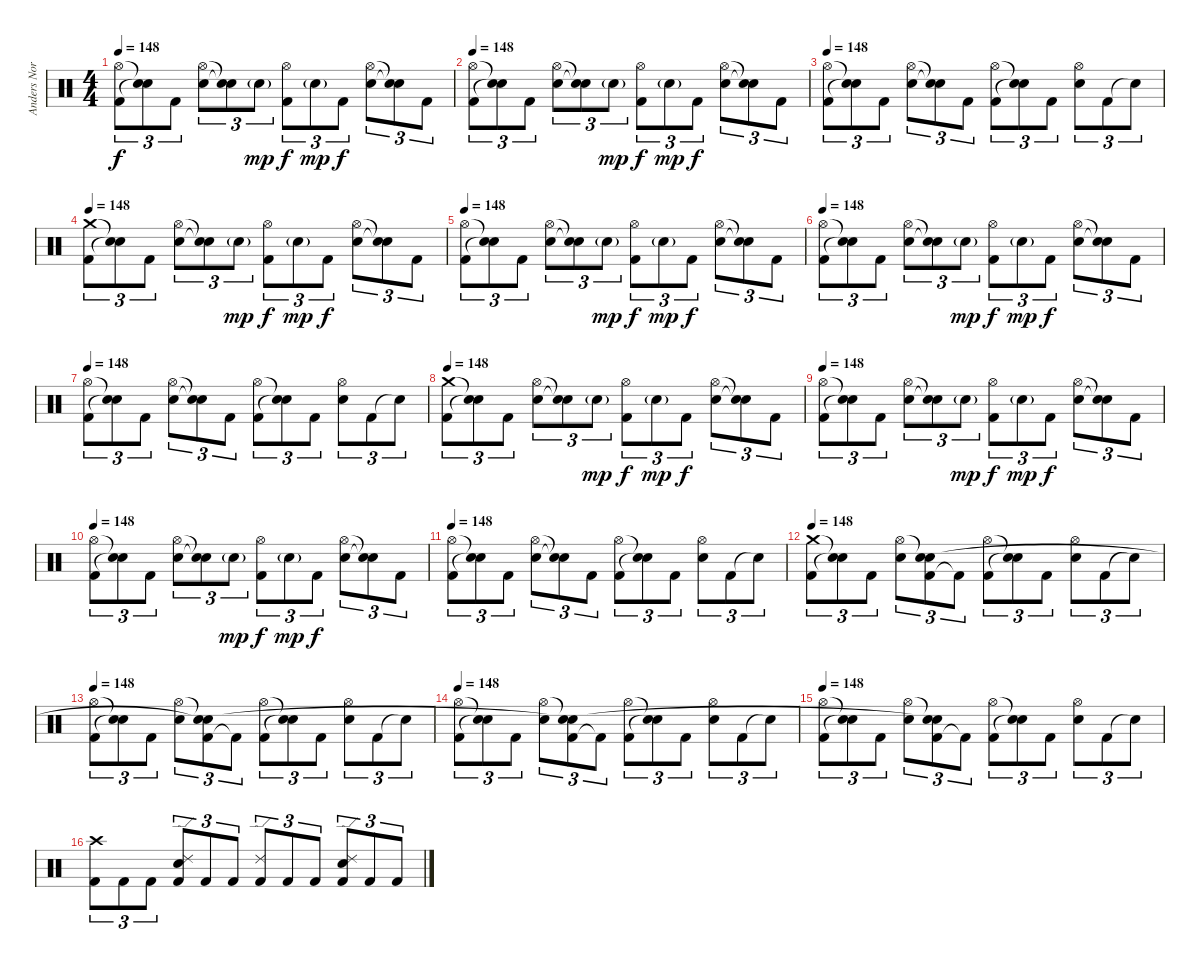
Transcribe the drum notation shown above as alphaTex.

\track ("Anders Nordin" "Anders Nor") {instrument percussion}
\staff {score}
\articulation defaults
\ts (4 4)
\tempo 148
\clef neutral
\ks c
("Kick (hit) 2" "Hi-Hat (open)").8{tu (3 2) dy f} ("Snare (hit)"{t} "Snare (hit)"{t}).8{tu (3 2)} "Kick (hit) 2".8{tu (3 2)} ("Electric Snare (hit)" "Hi-Hat (open)").8{tu (3 2)} ("Snare (hit)"{t} "Snare (hit)"{t}).8{tu (3 2)} "Electric Snare (hit)"{g}.8{tu (3 2) dy mp} ("Kick (hit) 2" "Hi-Hat (open)").8{tu (3 2) dy f} "Electric Snare (hit)"{g}.8{tu (3 2) dy mp} "Kick (hit) 2".8{tu (3 2) dy f} ("Electric Snare (hit)" "Hi-Hat (open)").8{tu (3 2)} ("Snare (hit)"{t} "Snare (hit)"{t}).8{tu (3 2)} "Kick (hit) 2".8{tu (3 2)} |
\tempo 148
("Kick (hit) 2" "Hi-Hat (open)").8{tu (3 2)} ("Snare (hit)"{t} "Snare (hit)"{t}).8{tu (3 2)} "Kick (hit) 2".8{tu (3 2)} ("Electric Snare (hit)" "Hi-Hat (open)").8{tu (3 2)} ("Snare (hit)"{t} "Snare (hit)"{t}).8{tu (3 2)} "Electric Snare (hit)"{g}.8{tu (3 2) dy mp} ("Kick (hit) 2" "Hi-Hat (open)").8{tu (3 2) dy f} "Electric Snare (hit)"{g}.8{tu (3 2) dy mp} "Kick (hit) 2".8{tu (3 2) dy f} ("Electric Snare (hit)" "Hi-Hat (open)").8{tu (3 2)} ("Snare (hit)"{t} "Snare (hit)"{t}).8{tu (3 2)} "Kick (hit) 2".8{tu (3 2)} |
\tempo 148
("Kick (hit) 2" "Hi-Hat (open)").8{tu (3 2)} ("Snare (hit)"{t} "Snare (hit)"{t}).8{tu (3 2)} "Kick (hit) 2".8{tu (3 2)} ("Electric Snare (hit)" "Hi-Hat (open)").8{tu (3 2)} ("Snare (hit)"{t} "Snare (hit)"{t}).8{tu (3 2)} "Kick (hit) 2".8{tu (3 2)} ("Kick (hit) 2" "Hi-Hat (open)").8{tu (3 2)} ("Snare (hit)"{t} "Snare (hit)"{t}).8{tu (3 2)} "Kick (hit) 2".8{tu (3 2)} ("Electric Snare (hit)" "Hi-Hat (open)").8{tu (3 2)} "Kick (hit) 2".8{tu (3 2)} "Snare (hit)"{t}.8{tu (3 2)} |
\tempo 148
("Kick (hit) 2" "Crash medium (hit)").8{tu (3 2)} ("Snare (hit)"{t} "Snare (hit)"{t}).8{tu (3 2)} "Kick (hit) 2".8{tu (3 2)} ("Electric Snare (hit)" "Hi-Hat (open)").8{tu (3 2)} ("Snare (hit)"{t} "Snare (hit)"{t}).8{tu (3 2)} "Electric Snare (hit)"{g}.8{tu (3 2) dy mp} ("Kick (hit) 2" "Hi-Hat (open)").8{tu (3 2) dy f} "Electric Snare (hit)"{g}.8{tu (3 2) dy mp} "Kick (hit) 2".8{tu (3 2) dy f} ("Electric Snare (hit)" "Hi-Hat (open)").8{tu (3 2)} ("Snare (hit)"{t} "Snare (hit)"{t}).8{tu (3 2)} "Kick (hit) 2".8{tu (3 2)} |
\tempo 148
("Kick (hit) 2" "Hi-Hat (open)").8{tu (3 2)} ("Snare (hit)"{t} "Snare (hit)"{t}).8{tu (3 2)} "Kick (hit) 2".8{tu (3 2)} ("Electric Snare (hit)" "Hi-Hat (open)").8{tu (3 2)} ("Snare (hit)"{t} "Snare (hit)"{t}).8{tu (3 2)} "Electric Snare (hit)"{g}.8{tu (3 2) dy mp} ("Kick (hit) 2" "Hi-Hat (open)").8{tu (3 2) dy f} "Electric Snare (hit)"{g}.8{tu (3 2) dy mp} "Kick (hit) 2".8{tu (3 2) dy f} ("Electric Snare (hit)" "Hi-Hat (open)").8{tu (3 2)} ("Snare (hit)"{t} "Snare (hit)"{t}).8{tu (3 2)} "Kick (hit) 2".8{tu (3 2)} |
\tempo 148
("Kick (hit) 2" "Hi-Hat (open)").8{tu (3 2)} ("Snare (hit)"{t} "Snare (hit)"{t}).8{tu (3 2)} "Kick (hit) 2".8{tu (3 2)} ("Electric Snare (hit)" "Hi-Hat (open)").8{tu (3 2)} ("Snare (hit)"{t} "Snare (hit)"{t}).8{tu (3 2)} "Electric Snare (hit)"{g}.8{tu (3 2) dy mp} ("Kick (hit) 2" "Hi-Hat (open)").8{tu (3 2) dy f} "Electric Snare (hit)"{g}.8{tu (3 2) dy mp} "Kick (hit) 2".8{tu (3 2) dy f} ("Electric Snare (hit)" "Hi-Hat (open)").8{tu (3 2)} ("Snare (hit)"{t} "Snare (hit)"{t}).8{tu (3 2)} "Kick (hit) 2".8{tu (3 2)} |
\tempo 148
("Kick (hit) 2" "Hi-Hat (open)").8{tu (3 2)} ("Snare (hit)"{t} "Snare (hit)"{t}).8{tu (3 2)} "Kick (hit) 2".8{tu (3 2)} ("Electric Snare (hit)" "Hi-Hat (open)").8{tu (3 2)} ("Snare (hit)"{t} "Snare (hit)"{t}).8{tu (3 2)} "Kick (hit) 2".8{tu (3 2)} ("Kick (hit) 2" "Hi-Hat (open)").8{tu (3 2)} ("Snare (hit)"{t} "Snare (hit)"{t}).8{tu (3 2)} "Kick (hit) 2".8{tu (3 2)} ("Electric Snare (hit)" "Hi-Hat (open)").8{tu (3 2)} "Kick (hit) 2".8{tu (3 2)} "Snare (hit)"{t}.8{tu (3 2)} |
\tempo 148
("Kick (hit) 2" "Crash medium (hit)").8{tu (3 2)} ("Snare (hit)"{t} "Snare (hit)"{t}).8{tu (3 2)} "Kick (hit) 2".8{tu (3 2)} ("Electric Snare (hit)" "Hi-Hat (open)").8{tu (3 2)} ("Snare (hit)"{t} "Snare (hit)"{t}).8{tu (3 2)} "Electric Snare (hit)"{g}.8{tu (3 2) dy mp} ("Kick (hit) 2" "Hi-Hat (open)").8{tu (3 2) dy f} "Electric Snare (hit)"{g}.8{tu (3 2) dy mp} "Kick (hit) 2".8{tu (3 2) dy f} ("Electric Snare (hit)" "Hi-Hat (open)").8{tu (3 2)} ("Snare (hit)"{t} "Snare (hit)"{t}).8{tu (3 2)} "Kick (hit) 2".8{tu (3 2)} |
\tempo 148
("Kick (hit) 2" "Hi-Hat (open)").8{tu (3 2)} ("Snare (hit)"{t} "Snare (hit)"{t}).8{tu (3 2)} "Kick (hit) 2".8{tu (3 2)} ("Electric Snare (hit)" "Hi-Hat (open)").8{tu (3 2)} ("Snare (hit)"{t} "Snare (hit)"{t}).8{tu (3 2)} "Electric Snare (hit)"{g}.8{tu (3 2) dy mp} ("Kick (hit) 2" "Hi-Hat (open)").8{tu (3 2) dy f} "Electric Snare (hit)"{g}.8{tu (3 2) dy mp} "Kick (hit) 2".8{tu (3 2) dy f} ("Electric Snare (hit)" "Hi-Hat (open)").8{tu (3 2)} ("Snare (hit)"{t} "Snare (hit)"{t}).8{tu (3 2)} "Kick (hit) 2".8{tu (3 2)} |
\tempo 148
("Kick (hit) 2" "Hi-Hat (open)").8{tu (3 2)} ("Snare (hit)"{t} "Snare (hit)"{t}).8{tu (3 2)} "Kick (hit) 2".8{tu (3 2)} ("Electric Snare (hit)" "Hi-Hat (open)").8{tu (3 2)} ("Snare (hit)"{t} "Snare (hit)"{t}).8{tu (3 2)} "Electric Snare (hit)"{g}.8{tu (3 2) dy mp} ("Kick (hit) 2" "Hi-Hat (open)").8{tu (3 2) dy f} "Electric Snare (hit)"{g}.8{tu (3 2) dy mp} "Kick (hit) 2".8{tu (3 2) dy f} ("Electric Snare (hit)" "Hi-Hat (open)").8{tu (3 2)} ("Snare (hit)"{t} "Snare (hit)"{t}).8{tu (3 2)} "Kick (hit) 2".8{tu (3 2)} |
\tempo 148
("Kick (hit) 2" "Hi-Hat (open)").8{tu (3 2)} ("Snare (hit)"{t} "Snare (hit)"{t}).8{tu (3 2)} "Kick (hit) 2".8{tu (3 2)} ("Electric Snare (hit)" "Hi-Hat (open)").8{tu (3 2)} ("Snare (hit)"{t} "Snare (hit)"{t}).8{tu (3 2)} "Kick (hit) 2".8{tu (3 2)} ("Kick (hit) 2" "Hi-Hat (open)").8{tu (3 2)} ("Snare (hit)"{t} "Snare (hit)"{t}).8{tu (3 2)} "Kick (hit) 2".8{tu (3 2)} ("Electric Snare (hit)" "Hi-Hat (open)").8{tu (3 2)} "Kick (hit) 2".8{tu (3 2)} "Snare (hit)"{t}.8{tu (3 2)} |
\tempo 148
("Kick (hit) 2" "Crash medium (hit)").8{tu (3 2)} ("Snare (hit)"{t} "Snare (hit)"{t}).8{tu (3 2)} "Kick (hit) 2".8{tu (3 2)} ("Electric Snare (hit)" "Hi-Hat (open)").8{tu (3 2)} ("Kick (hit) 2" "Snare (hit)"{t} "Snare (hit)").8{tu (3 2)} "Kick (hit) 2"{t}.8{tu (3 2)} ("Kick (hit) 2" "Hi-Hat (open)").8{tu (3 2)} ("Snare (hit)"{t} "Snare (hit)"{t}).8{tu (3 2)} "Kick (hit) 2".8{tu (3 2)} ("Electric Snare (hit)" "Hi-Hat (open)").8{tu (3 2)} "Kick (hit) 2".8{tu (3 2)} "Snare (hit)"{t}.8{tu (3 2)} |
\tempo 148
("Kick (hit) 2" "Hi-Hat (open)").8{tu (3 2)} ("Snare (hit)"{t} "Snare (hit)"{t}).8{tu (3 2)} "Kick (hit) 2".8{tu (3 2)} ("Electric Snare (hit)" "Hi-Hat (open)").8{tu (3 2)} ("Kick (hit) 2" "Snare (hit)"{t} "Snare (hit)"{t}).8{tu (3 2)} "Kick (hit) 2"{t}.8{tu (3 2)} ("Kick (hit) 2" "Hi-Hat (open)").8{tu (3 2)} ("Snare (hit)"{t} "Snare (hit)"{t}).8{tu (3 2)} "Kick (hit) 2".8{tu (3 2)} ("Electric Snare (hit)" "Hi-Hat (open)").8{tu (3 2)} "Kick (hit) 2".8{tu (3 2)} "Snare (hit)"{t}.8{tu (3 2)} |
\tempo 148
("Kick (hit) 2" "Hi-Hat (open)").8{tu (3 2)} ("Snare (hit)"{t} "Snare (hit)"{t}).8{tu (3 2)} "Kick (hit) 2".8{tu (3 2)} ("Electric Snare (hit)" "Hi-Hat (open)").8{tu (3 2)} ("Kick (hit) 2" "Snare (hit)"{t} "Snare (hit)"{t}).8{tu (3 2)} "Kick (hit) 2"{t}.8{tu (3 2)} ("Kick (hit) 2" "Hi-Hat (open)").8{tu (3 2)} ("Snare (hit)"{t} "Snare (hit)"{t}).8{tu (3 2)} "Kick (hit) 2".8{tu (3 2)} ("Electric Snare (hit)" "Hi-Hat (open)").8{tu (3 2)} "Kick (hit) 2".8{tu (3 2)} "Snare (hit)"{t}.8{tu (3 2)} |
\tempo 148
("Kick (hit) 2" "Hi-Hat (open)").8{tu (3 2)} ("Snare (hit)"{t} "Snare (hit)"{t}).8{tu (3 2)} "Kick (hit) 2".8{tu (3 2)} ("Electric Snare (hit)" "Hi-Hat (open)").8{tu (3 2)} ("Kick (hit) 2" "Snare (hit)"{t} "Snare (hit)"{t}).8{tu (3 2)} "Kick (hit) 2"{t}.8{tu (3 2)} ("Kick (hit) 2" "Hi-Hat (open)").8{tu (3 2)} ("Snare (hit)"{t} "Snare (hit)"{t}).8{tu (3 2)} "Kick (hit) 2".8{tu (3 2)} ("Electric Snare (hit)" "Hi-Hat (open)").8{tu (3 2)} "Kick (hit) 2".8{tu (3 2)} "Snare (hit)"{t}.8{tu (3 2)} |
("Kick (hit) 2" "Crash high (hit)").8{tu (3 2)} "Kick (hit) 2".8{tu (3 2)} "Kick (hit) 2".8{tu (3 2)} ("Kick (hit) 2" "Electric Snare (hit)" "Ride (edge) 2").8{tu (3 2)} "Kick (hit) 2".8{tu (3 2)} "Kick (hit) 2".8{tu (3 2)} ("Kick (hit) 2" "Ride (edge) 2").8{tu (3 2)} "Kick (hit) 2".8{tu (3 2)} "Kick (hit) 2".8{tu (3 2)} ("Kick (hit) 2" "Electric Snare (hit)" "Ride (edge) 2").8{tu (3 2)} "Kick (hit) 2".8{tu (3 2)} "Kick (hit) 2".8{tu (3 2)}
